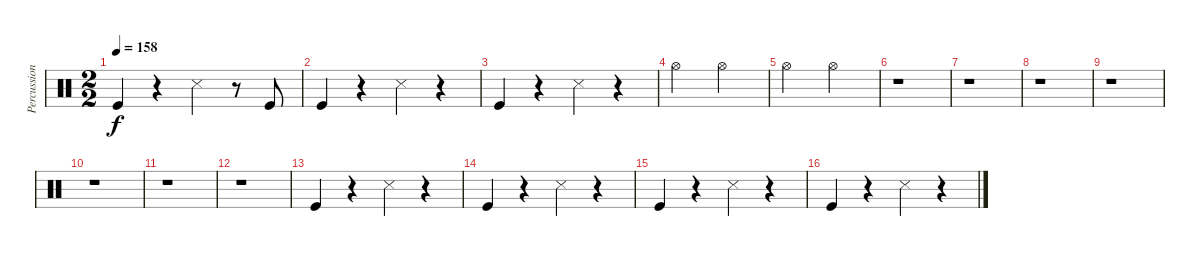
\track ("Percussion" "Percussion") {instrument percussion}
\staff {score}
\articulation defaults
\ts (2 2)
\tempo 158
\clef neutral
\ks c "Kick (hit)".4{dy f}
r.4 "Snare (side stick) 3".4 r.8 "Kick (hit)".8 |
"Kick (hit)".4 r.4 "Snare (side stick) 3".4 r.4 |
"Kick (hit)".4 r.4 "Snare (side stick) 3".4 r.4 |
"Hi-Hat (open)".2 "Hi-Hat (open)".2 |
"Hi-Hat (open)".2 "Hi-Hat (open)".2 |
r.1 |
r.1 |
r.1 |
r.1 |
r.1 |
r.1 |
r.1 |
"Kick (hit)".4 r.4 "Snare (side stick) 3".4 r.4 |
"Kick (hit)".4 r.4 "Snare (side stick) 3".4 r.4 |
"Kick (hit)".4 r.4 "Snare (side stick) 3".4 r.4 |
"Kick (hit)".4 r.4 "Snare (side stick) 3".4 r.4
